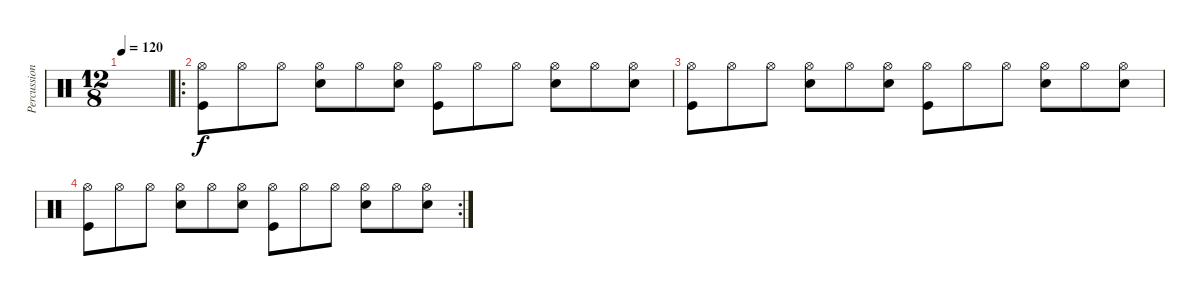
\track ("Percussion" "Percussion") {instrument percussion}
\staff {score}
\articulation defaults
\ts (12 8)
\tempo 120
\clef neutral
\ks c
|
\ro
("Hi-Hat (open)" "Kick (hit)").8 "Hi-Hat (open)".8 "Hi-Hat (open)".8 ("Hi-Hat (open)" "Snare (hit) 2").8 "Hi-Hat (open)".8 ("Hi-Hat (open)" "Snare (hit) 2").8 ("Hi-Hat (open)" "Kick (hit)").8 "Hi-Hat (open)".8 "Hi-Hat (open)".8 ("Hi-Hat (open)" "Snare (hit) 2").8 "Hi-Hat (open)".8 ("Hi-Hat (open)" "Snare (hit) 2").8 |
("Hi-Hat (open)" "Kick (hit)").8 "Hi-Hat (open)".8 "Hi-Hat (open)".8 ("Hi-Hat (open)" "Snare (hit) 2").8 "Hi-Hat (open)".8 ("Hi-Hat (open)" "Snare (hit) 2").8 ("Hi-Hat (open)" "Kick (hit)").8 "Hi-Hat (open)".8 "Hi-Hat (open)".8 ("Hi-Hat (open)" "Snare (hit) 2").8 "Hi-Hat (open)".8 ("Hi-Hat (open)" "Snare (hit) 2").8 |
\rc 2
("Hi-Hat (open)" "Kick (hit)").8 "Hi-Hat (open)".8 "Hi-Hat (open)".8 ("Hi-Hat (open)" "Snare (hit) 2").8 "Hi-Hat (open)".8 ("Hi-Hat (open)" "Snare (hit) 2").8 ("Hi-Hat (open)" "Kick (hit)").8 "Hi-Hat (open)".8 "Hi-Hat (open)".8 ("Hi-Hat (open)" "Snare (hit) 2").8 "Hi-Hat (open)".8 ("Hi-Hat (open)" "Snare (hit) 2").8
